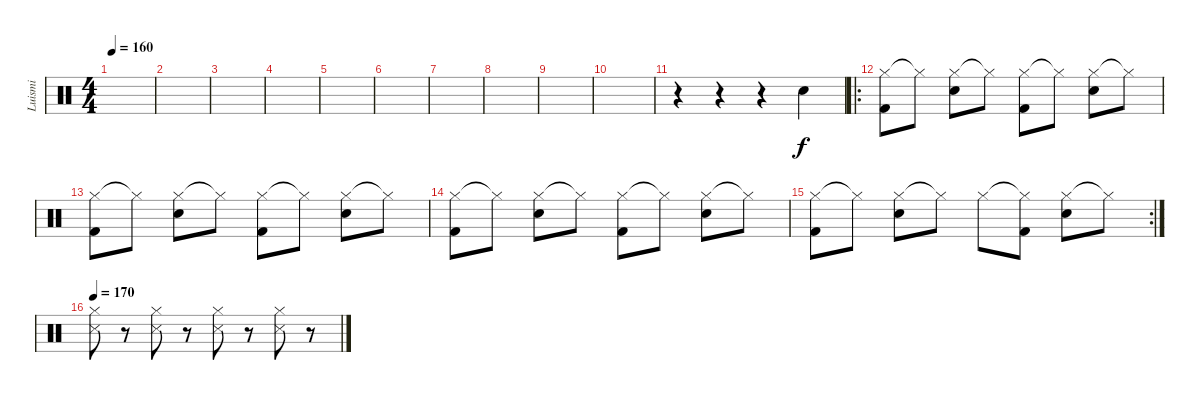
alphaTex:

\track ("Luismi" "Luismi") {instrument percussion}
\staff {score}
\articulation defaults
\ts (4 4)
\tempo 160
\clef neutral
\ks c
|
|
|
|
|
|
|
|
|
|
r.4 r.4 r.4 "Electric Snare (hit)".4 |
\ro
("Hi-Hat (closed)" "Kick (hit) 2").8 "Hi-Hat (closed)"{t}.8 ("Hi-Hat (closed)" "Electric Snare (hit)").8 "Hi-Hat (closed)"{t}.8 ("Hi-Hat (closed)" "Kick (hit) 2").8 "Hi-Hat (closed)"{t}.8 ("Hi-Hat (closed)" "Electric Snare (hit)").8 "Hi-Hat (closed)"{t}.8 |
("Hi-Hat (closed)" "Kick (hit) 2").8 "Hi-Hat (closed)"{t}.8 ("Hi-Hat (closed)" "Electric Snare (hit)").8 "Hi-Hat (closed)"{t}.8 ("Hi-Hat (closed)" "Kick (hit) 2").8 "Hi-Hat (closed)"{t}.8 ("Hi-Hat (closed)" "Electric Snare (hit)").8 "Hi-Hat (closed)"{t}.8 |
("Hi-Hat (closed)" "Kick (hit) 2").8 "Hi-Hat (closed)"{t}.8 ("Hi-Hat (closed)" "Electric Snare (hit)").8 "Hi-Hat (closed)"{t}.8 ("Hi-Hat (closed)" "Kick (hit) 2").8 "Hi-Hat (closed)"{t}.8 ("Hi-Hat (closed)" "Electric Snare (hit)").8 "Hi-Hat (closed)"{t}.8 |
\rc 2
("Hi-Hat (closed)" "Kick (hit) 2").8 "Hi-Hat (closed)"{t}.8 ("Hi-Hat (closed)" "Electric Snare (hit)").8 "Hi-Hat (closed)"{t}.8 "Hi-Hat (closed)".8 ("Hi-Hat (closed)"{t} "Kick (hit) 2").8 ("Hi-Hat (closed)" "Electric Snare (hit)").8 "Hi-Hat (closed)"{t}.8 |
\tempo 170
("Snare (side stick) 3" "Hi-Hat (closed)").8 r.8 ("Snare (side stick) 3" "Hi-Hat (closed)").8 r.8 ("Snare (side stick) 3" "Hi-Hat (closed)").8 r.8 ("Snare (side stick) 3" "Hi-Hat (closed)").8 r.8
